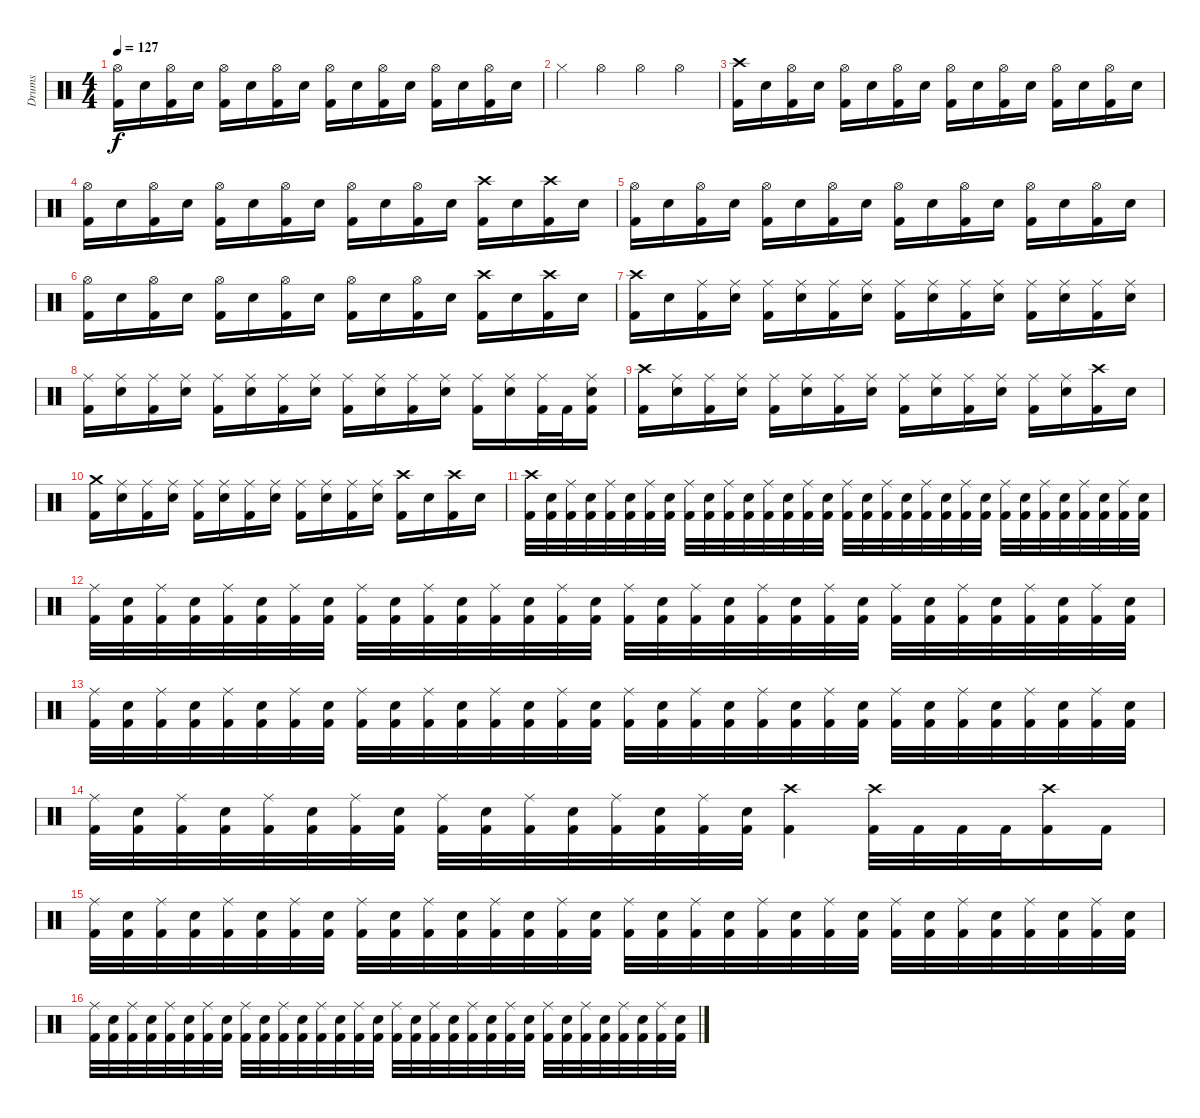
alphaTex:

\track ("Drums" "Drums") {instrument percussion}
\staff {score}
\articulation defaults
\ts (4 4)
\tempo 127
\clef neutral
\ks c
("Hi-Hat (open)" "Kick (hit) 2").16{dy f} "Electric Snare (hit)".16 ("Hi-Hat (open)" "Kick (hit) 2").16 "Electric Snare (hit)".16 ("Hi-Hat (open)" "Kick (hit) 2").16 "Electric Snare (hit)".16 ("Hi-Hat (open)" "Kick (hit) 2").16 "Electric Snare (hit)".16 ("Hi-Hat (open)" "Kick (hit) 2").16 "Electric Snare (hit)".16 ("Hi-Hat (open)" "Kick (hit) 2").16 "Electric Snare (hit)".16 ("Hi-Hat (open)" "Kick (hit) 2").16 "Electric Snare (hit)".16 ("Hi-Hat (open)" "Kick (hit) 2").16 "Electric Snare (hit)".16 |
"Hi-Hat (closed)".4 "Hi-Hat (open)".4 "Hi-Hat (open)".4 "Hi-Hat (open)".4 |
("Crash high (hit)" "Kick (hit) 2").16 "Electric Snare (hit)".16 ("Hi-Hat (open)" "Kick (hit) 2").16 "Electric Snare (hit)".16 ("Hi-Hat (open)" "Kick (hit) 2").16 "Electric Snare (hit)".16 ("Hi-Hat (open)" "Kick (hit) 2").16 "Electric Snare (hit)".16 ("Hi-Hat (open)" "Kick (hit) 2").16 "Electric Snare (hit)".16 ("Hi-Hat (open)" "Kick (hit) 2").16 "Electric Snare (hit)".16 ("Hi-Hat (open)" "Kick (hit) 2").16 "Electric Snare (hit)".16 ("Hi-Hat (open)" "Kick (hit) 2").16 "Electric Snare (hit)".16 |
("Hi-Hat (open)" "Kick (hit) 2").16 "Electric Snare (hit)".16 ("Hi-Hat (open)" "Kick (hit) 2").16 "Electric Snare (hit)".16 ("Hi-Hat (open)" "Kick (hit) 2").16 "Electric Snare (hit)".16 ("Hi-Hat (open)" "Kick (hit) 2").16 "Electric Snare (hit)".16 ("Hi-Hat (open)" "Kick (hit) 2").16 "Electric Snare (hit)".16 ("Hi-Hat (open)" "Kick (hit) 2").16 "Electric Snare (hit)".16 ("Crash high (hit)" "Kick (hit) 2").16 "Electric Snare (hit)".16 ("Crash high (hit)" "Kick (hit) 2").16 "Electric Snare (hit)".16 |
("Hi-Hat (open)" "Kick (hit) 2").16 "Electric Snare (hit)".16 ("Hi-Hat (open)" "Kick (hit) 2").16 "Electric Snare (hit)".16 ("Hi-Hat (open)" "Kick (hit) 2").16 "Electric Snare (hit)".16 ("Hi-Hat (open)" "Kick (hit) 2").16 "Electric Snare (hit)".16 ("Hi-Hat (open)" "Kick (hit) 2").16 "Electric Snare (hit)".16 ("Hi-Hat (open)" "Kick (hit) 2").16 "Electric Snare (hit)".16 ("Hi-Hat (open)" "Kick (hit) 2").16 "Electric Snare (hit)".16 ("Hi-Hat (open)" "Kick (hit) 2").16 "Electric Snare (hit)".16 |
("Hi-Hat (open)" "Kick (hit) 2").16 "Electric Snare (hit)".16 ("Hi-Hat (open)" "Kick (hit) 2").16 "Electric Snare (hit)".16 ("Hi-Hat (open)" "Kick (hit) 2").16 "Electric Snare (hit)".16 ("Hi-Hat (open)" "Kick (hit) 2").16 "Electric Snare (hit)".16 ("Hi-Hat (open)" "Kick (hit) 2").16 "Electric Snare (hit)".16 ("Hi-Hat (open)" "Kick (hit) 2").16 "Electric Snare (hit)".16 ("Crash high (hit)" "Kick (hit) 2").16 "Electric Snare (hit)".16 ("Crash high (hit)" "Kick (hit) 2").16 "Electric Snare (hit)".16 |
("Crash high (hit)" "Kick (hit) 2").16 "Electric Snare (hit)".16 ("Ride (middle)" "Kick (hit) 2").16 ("Ride (middle)" "Electric Snare (hit)").16 ("Ride (middle)" "Kick (hit) 2").16 ("Ride (middle)" "Electric Snare (hit)").16 ("Ride (middle)" "Kick (hit) 2").16 ("Ride (middle)" "Electric Snare (hit)").16 ("Ride (middle)" "Kick (hit) 2").16 ("Ride (middle)" "Electric Snare (hit)").16 ("Ride (middle)" "Kick (hit) 2").16 ("Ride (middle)" "Electric Snare (hit)").16 ("Ride (middle)" "Kick (hit) 2").16 ("Ride (middle)" "Electric Snare (hit)").16 ("Ride (middle)" "Kick (hit) 2").16 ("Ride (middle)" "Electric Snare (hit)").16 |
("Ride (middle)" "Kick (hit) 2").16 ("Ride (middle)" "Electric Snare (hit)").16 ("Ride (middle)" "Kick (hit) 2").16 ("Ride (middle)" "Electric Snare (hit)").16 ("Ride (middle)" "Kick (hit) 2").16 ("Ride (middle)" "Electric Snare (hit)").16 ("Ride (middle)" "Kick (hit) 2").16 ("Ride (middle)" "Electric Snare (hit)").16 ("Ride (middle)" "Kick (hit) 2").16 ("Ride (middle)" "Electric Snare (hit)").16 ("Ride (middle)" "Kick (hit) 2").16 ("Ride (middle)" "Electric Snare (hit)").16 ("Ride (middle)" "Kick (hit) 2").16 ("Ride (middle)" "Electric Snare (hit)").16 ("Ride (middle)" "Kick (hit) 2").32 "Kick (hit) 2".32 ("Ride (middle)" "Electric Snare (hit)" "Kick (hit) 2").16 |
("Crash high (hit)" "Kick (hit) 2").16 ("Ride (middle)" "Electric Snare (hit)").16 ("Ride (middle)" "Kick (hit) 2").16 ("Ride (middle)" "Electric Snare (hit)").16 ("Ride (middle)" "Kick (hit) 2").16 ("Ride (middle)" "Electric Snare (hit)").16 ("Ride (middle)" "Kick (hit) 2").16 ("Ride (middle)" "Electric Snare (hit)").16 ("Ride (middle)" "Kick (hit) 2").16 ("Ride (middle)" "Electric Snare (hit)").16 ("Ride (middle)" "Kick (hit) 2").16 ("Ride (middle)" "Electric Snare (hit)").16 ("Ride (middle)" "Kick (hit) 2").16 ("Ride (middle)" "Electric Snare (hit)").16 ("Crash high (hit)" "Kick (hit) 2").16 "Electric Snare (hit)".16 |
("Crash medium (hit)" "Kick (hit) 2").16 ("Ride (middle)" "Electric Snare (hit)").16 ("Ride (middle)" "Kick (hit) 2").16 ("Ride (middle)" "Electric Snare (hit)").16 ("Ride (middle)" "Kick (hit) 2").16 ("Ride (middle)" "Electric Snare (hit)").16 ("Ride (middle)" "Kick (hit) 2").16 ("Ride (middle)" "Electric Snare (hit)").16 ("Ride (middle)" "Kick (hit) 2").16 ("Ride (middle)" "Electric Snare (hit)").16 ("Ride (middle)" "Kick (hit) 2").16 ("Ride (middle)" "Electric Snare (hit)").16 ("Crash high (hit)" "Kick (hit) 2").16 "Electric Snare (hit)".16 ("Crash high (hit)" "Kick (hit) 2").16 "Electric Snare (hit)".16 |
("Crash high (hit)" "Kick (hit) 2").32 ("Electric Snare (hit)" "Kick (hit) 2").32 ("Ride (middle)" "Kick (hit) 2").32 ("Electric Snare (hit)" "Kick (hit) 2").32 ("Ride (middle)" "Kick (hit) 2").32 ("Electric Snare (hit)" "Kick (hit) 2").32 ("Ride (middle)" "Kick (hit) 2").32 ("Electric Snare (hit)" "Kick (hit) 2").32 ("Ride (middle)" "Kick (hit) 2").32 ("Electric Snare (hit)" "Kick (hit) 2").32 ("Ride (middle)" "Kick (hit) 2").32 ("Electric Snare (hit)" "Kick (hit) 2").32 ("Ride (middle)" "Kick (hit) 2").32 ("Electric Snare (hit)" "Kick (hit) 2").32 ("Ride (middle)" "Kick (hit) 2").32 ("Electric Snare (hit)" "Kick (hit) 2").32 ("Ride (middle)" "Kick (hit) 2").32 ("Electric Snare (hit)" "Kick (hit) 2").32 ("Ride (middle)" "Kick (hit) 2").32 ("Electric Snare (hit)" "Kick (hit) 2").32 ("Ride (middle)" "Kick (hit) 2").32 ("Electric Snare (hit)" "Kick (hit) 2").32 ("Ride (middle)" "Kick (hit) 2").32 ("Electric Snare (hit)" "Kick (hit) 2").32 ("Ride (middle)" "Kick (hit) 2").32 ("Electric Snare (hit)" "Kick (hit) 2").32 ("Ride (middle)" "Kick (hit) 2").32 ("Electric Snare (hit)" "Kick (hit) 2").32 ("Ride (middle)" "Kick (hit) 2").32 ("Electric Snare (hit)" "Kick (hit) 2").32 ("Ride (middle)" "Kick (hit) 2").32 ("Electric Snare (hit)" "Kick (hit) 2").32 |
("Ride (middle)" "Kick (hit) 2").32 ("Electric Snare (hit)" "Kick (hit) 2").32 ("Ride (middle)" "Kick (hit) 2").32 ("Electric Snare (hit)" "Kick (hit) 2").32 ("Ride (middle)" "Kick (hit) 2").32 ("Electric Snare (hit)" "Kick (hit) 2").32 ("Ride (middle)" "Kick (hit) 2").32 ("Electric Snare (hit)" "Kick (hit) 2").32 ("Ride (middle)" "Kick (hit) 2").32 ("Electric Snare (hit)" "Kick (hit) 2").32 ("Ride (middle)" "Kick (hit) 2").32 ("Electric Snare (hit)" "Kick (hit) 2").32 ("Ride (middle)" "Kick (hit) 2").32 ("Electric Snare (hit)" "Kick (hit) 2").32 ("Ride (middle)" "Kick (hit) 2").32 ("Electric Snare (hit)" "Kick (hit) 2").32 ("Ride (middle)" "Kick (hit) 2").32 ("Electric Snare (hit)" "Kick (hit) 2").32 ("Ride (middle)" "Kick (hit) 2").32 ("Electric Snare (hit)" "Kick (hit) 2").32 ("Ride (middle)" "Kick (hit) 2").32 ("Electric Snare (hit)" "Kick (hit) 2").32 ("Ride (middle)" "Kick (hit) 2").32 ("Electric Snare (hit)" "Kick (hit) 2").32 ("Ride (middle)" "Kick (hit) 2").32 ("Electric Snare (hit)" "Kick (hit) 2").32 ("Ride (middle)" "Kick (hit) 2").32 ("Electric Snare (hit)" "Kick (hit) 2").32 ("Ride (middle)" "Kick (hit) 2").32 ("Electric Snare (hit)" "Kick (hit) 2").32 ("Ride (middle)" "Kick (hit) 2").32 ("Electric Snare (hit)" "Kick (hit) 2").32 |
("Ride (middle)" "Kick (hit) 2").32 ("Electric Snare (hit)" "Kick (hit) 2").32 ("Ride (middle)" "Kick (hit) 2").32 ("Electric Snare (hit)" "Kick (hit) 2").32 ("Ride (middle)" "Kick (hit) 2").32 ("Electric Snare (hit)" "Kick (hit) 2").32 ("Ride (middle)" "Kick (hit) 2").32 ("Electric Snare (hit)" "Kick (hit) 2").32 ("Ride (middle)" "Kick (hit) 2").32 ("Electric Snare (hit)" "Kick (hit) 2").32 ("Ride (middle)" "Kick (hit) 2").32 ("Electric Snare (hit)" "Kick (hit) 2").32 ("Ride (middle)" "Kick (hit) 2").32 ("Electric Snare (hit)" "Kick (hit) 2").32 ("Ride (middle)" "Kick (hit) 2").32 ("Electric Snare (hit)" "Kick (hit) 2").32 ("Ride (middle)" "Kick (hit) 2").32 ("Electric Snare (hit)" "Kick (hit) 2").32 ("Ride (middle)" "Kick (hit) 2").32 ("Electric Snare (hit)" "Kick (hit) 2").32 ("Ride (middle)" "Kick (hit) 2").32 ("Electric Snare (hit)" "Kick (hit) 2").32 ("Ride (middle)" "Kick (hit) 2").32 ("Electric Snare (hit)" "Kick (hit) 2").32 ("Ride (middle)" "Kick (hit) 2").32 ("Electric Snare (hit)" "Kick (hit) 2").32 ("Ride (middle)" "Kick (hit) 2").32 ("Electric Snare (hit)" "Kick (hit) 2").32 ("Ride (middle)" "Kick (hit) 2").32 ("Electric Snare (hit)" "Kick (hit) 2").32 ("Ride (middle)" "Kick (hit) 2").32 ("Electric Snare (hit)" "Kick (hit) 2").32 |
("Ride (middle)" "Kick (hit) 2").32 ("Electric Snare (hit)" "Kick (hit) 2").32 ("Ride (middle)" "Kick (hit) 2").32 ("Electric Snare (hit)" "Kick (hit) 2").32 ("Ride (middle)" "Kick (hit) 2").32 ("Electric Snare (hit)" "Kick (hit) 2").32 ("Ride (middle)" "Kick (hit) 2").32 ("Electric Snare (hit)" "Kick (hit) 2").32 ("Ride (middle)" "Kick (hit) 2").32 ("Electric Snare (hit)" "Kick (hit) 2").32 ("Ride (middle)" "Kick (hit) 2").32 ("Electric Snare (hit)" "Kick (hit) 2").32 ("Ride (middle)" "Kick (hit) 2").32 ("Electric Snare (hit)" "Kick (hit) 2").32 ("Ride (middle)" "Kick (hit) 2").32 ("Electric Snare (hit)" "Kick (hit) 2").32 ("Crash high (hit)" "Kick (hit) 2").4 ("Crash high (hit)" "Kick (hit) 2").32 "Kick (hit) 2".32 "Kick (hit) 2".32 "Kick (hit) 2".32 ("Crash high (hit)" "Kick (hit) 2").16 "Kick (hit) 2".16 |
("Ride (middle)" "Kick (hit) 2").32 ("Electric Snare (hit)" "Kick (hit) 2").32 ("Ride (middle)" "Kick (hit) 2").32 ("Electric Snare (hit)" "Kick (hit) 2").32 ("Ride (middle)" "Kick (hit) 2").32 ("Electric Snare (hit)" "Kick (hit) 2").32 ("Ride (middle)" "Kick (hit) 2").32 ("Electric Snare (hit)" "Kick (hit) 2").32 ("Ride (middle)" "Kick (hit) 2").32 ("Electric Snare (hit)" "Kick (hit) 2").32 ("Ride (middle)" "Kick (hit) 2").32 ("Electric Snare (hit)" "Kick (hit) 2").32 ("Ride (middle)" "Kick (hit) 2").32 ("Electric Snare (hit)" "Kick (hit) 2").32 ("Ride (middle)" "Kick (hit) 2").32 ("Electric Snare (hit)" "Kick (hit) 2").32 ("Ride (middle)" "Kick (hit) 2").32 ("Electric Snare (hit)" "Kick (hit) 2").32 ("Ride (middle)" "Kick (hit) 2").32 ("Electric Snare (hit)" "Kick (hit) 2").32 ("Ride (middle)" "Kick (hit) 2").32 ("Electric Snare (hit)" "Kick (hit) 2").32 ("Ride (middle)" "Kick (hit) 2").32 ("Electric Snare (hit)" "Kick (hit) 2").32 ("Ride (middle)" "Kick (hit) 2").32 ("Electric Snare (hit)" "Kick (hit) 2").32 ("Ride (middle)" "Kick (hit) 2").32 ("Electric Snare (hit)" "Kick (hit) 2").32 ("Ride (middle)" "Kick (hit) 2").32 ("Electric Snare (hit)" "Kick (hit) 2").32 ("Ride (middle)" "Kick (hit) 2").32 ("Electric Snare (hit)" "Kick (hit) 2").32 |
("Ride (middle)" "Kick (hit) 2").32 ("Electric Snare (hit)" "Kick (hit) 2").32 ("Ride (middle)" "Kick (hit) 2").32 ("Electric Snare (hit)" "Kick (hit) 2").32 ("Ride (middle)" "Kick (hit) 2").32 ("Electric Snare (hit)" "Kick (hit) 2").32 ("Ride (middle)" "Kick (hit) 2").32 ("Electric Snare (hit)" "Kick (hit) 2").32 ("Ride (middle)" "Kick (hit) 2").32 ("Electric Snare (hit)" "Kick (hit) 2").32 ("Ride (middle)" "Kick (hit) 2").32 ("Electric Snare (hit)" "Kick (hit) 2").32 ("Ride (middle)" "Kick (hit) 2").32 ("Electric Snare (hit)" "Kick (hit) 2").32 ("Ride (middle)" "Kick (hit) 2").32 ("Electric Snare (hit)" "Kick (hit) 2").32 ("Ride (middle)" "Kick (hit) 2").32 ("Electric Snare (hit)" "Kick (hit) 2").32 ("Ride (middle)" "Kick (hit) 2").32 ("Electric Snare (hit)" "Kick (hit) 2").32 ("Ride (middle)" "Kick (hit) 2").32 ("Electric Snare (hit)" "Kick (hit) 2").32 ("Ride (middle)" "Kick (hit) 2").32 ("Electric Snare (hit)" "Kick (hit) 2").32 ("Ride (middle)" "Kick (hit) 2").32 ("Electric Snare (hit)" "Kick (hit) 2").32 ("Ride (middle)" "Kick (hit) 2").32 ("Electric Snare (hit)" "Kick (hit) 2").32 ("Ride (middle)" "Kick (hit) 2").32 ("Electric Snare (hit)" "Kick (hit) 2").32 ("Ride (middle)" "Kick (hit) 2").32 ("Electric Snare (hit)" "Kick (hit) 2").32
